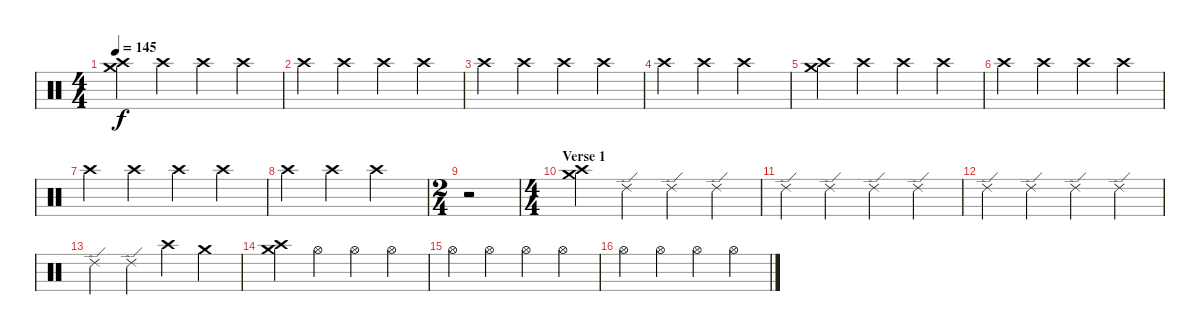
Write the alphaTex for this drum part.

\track "" {instrument percussion}
\staff {score}
\articulation defaults
\ts (4 4)
\tempo 145
\clef neutral
\ks c
("Crash medium (hit)" "Crash high (hit)").4{dy f} "Crash high (hit)".4 "Crash high (hit)".4 "Crash high (hit)".4 |
"Crash high (hit)".4 "Crash high (hit)".4 "Crash high (hit)".4 "Crash high (hit)".4 |
"Crash high (hit)".4 "Crash high (hit)".4 "Crash high (hit)".4 "Crash high (hit)".4 |
"Crash high (hit)".4 "Crash high (hit)".4 "Crash high (hit)".2 |
("Crash medium (hit)" "Crash high (hit)").4 "Crash high (hit)".4 "Crash high (hit)".4 "Crash high (hit)".4 |
"Crash high (hit)".4 "Crash high (hit)".4 "Crash high (hit)".4 "Crash high (hit)".4 |
"Crash high (hit)".4 "Crash high (hit)".4 "Crash high (hit)".4 "Crash high (hit)".4 |
"Crash high (hit)".4 "Crash high (hit)".4 "Crash high (hit)".2 |
\ts (2 4)
r.2 |
\ts (4 4)
\section ("" "Verse 1")
("Crash high (hit)" "Crash medium (hit)").4 "Ride (edge) 2".4 "Ride (edge) 2".4 "Ride (edge) 2".4 |
"Ride (edge) 2".4 "Ride (edge) 2".4 "Ride (edge) 2".4 "Ride (edge) 2".4 |
"Ride (edge) 2".4 "Ride (edge) 2".4 "Ride (edge) 2".4 "Ride (edge) 2".4 |
"Ride (edge) 2".4 "Ride (edge) 2".4 "Crash high (hit)".4 "Crash medium (hit)".4 |
("Crash medium (hit)" "Crash high (hit)").4 "Hi-Hat (open)".4 "Hi-Hat (open)".4 "Hi-Hat (open)".4 |
"Hi-Hat (open)".4 "Hi-Hat (open)".4 "Hi-Hat (open)".4 "Hi-Hat (open)".4 |
"Hi-Hat (open)".4 "Hi-Hat (open)".4 "Hi-Hat (open)".4 "Hi-Hat (open)".4
